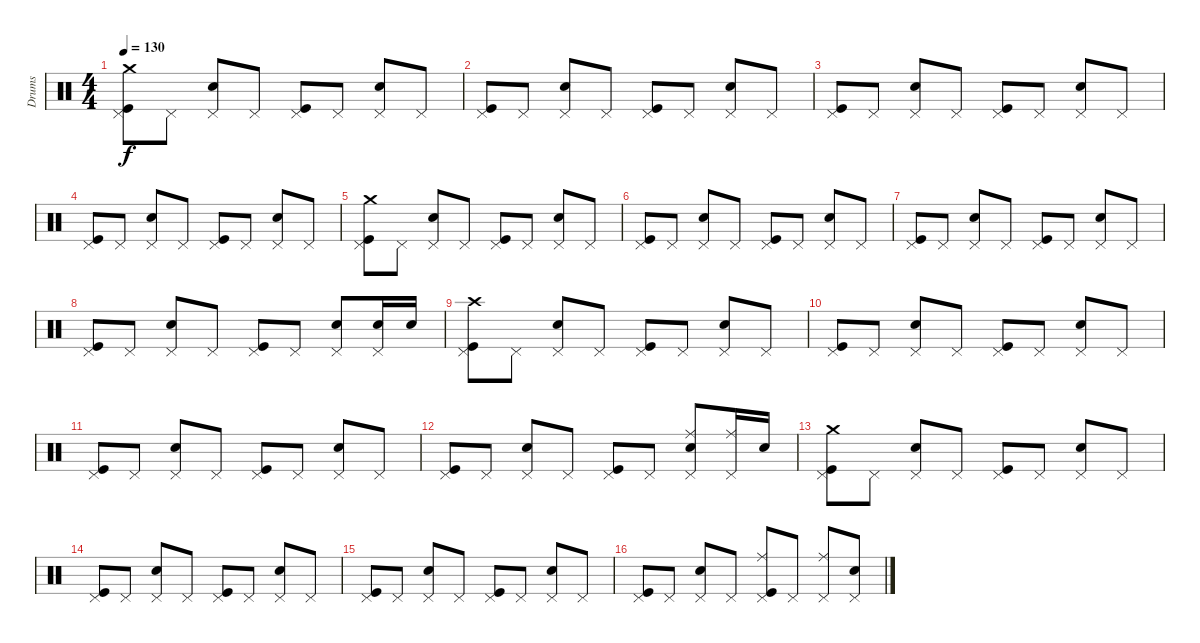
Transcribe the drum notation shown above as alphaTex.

\track ("Drums" "Drums") {instrument percussion}
\staff {score}
\articulation defaults
\ts (4 4)
\tempo 130
\clef neutral
\ks c
("Pedal Hi-Hat (hit)" "Kick (hit)" "Crash medium (hit)").8{dy f} "Pedal Hi-Hat (hit)".8 ("Pedal Hi-Hat (hit)" "Electric Snare (hit)").8 "Pedal Hi-Hat (hit)".8 ("Pedal Hi-Hat (hit)" "Kick (hit)").8 "Pedal Hi-Hat (hit)".8 ("Pedal Hi-Hat (hit)" "Electric Snare (hit)").8 "Pedal Hi-Hat (hit)".8 |
("Pedal Hi-Hat (hit)" "Kick (hit)").8 "Pedal Hi-Hat (hit)".8 ("Pedal Hi-Hat (hit)" "Electric Snare (hit)").8 "Pedal Hi-Hat (hit)".8 ("Pedal Hi-Hat (hit)" "Kick (hit)").8 "Pedal Hi-Hat (hit)".8 ("Pedal Hi-Hat (hit)" "Electric Snare (hit)").8 "Pedal Hi-Hat (hit)".8 |
("Pedal Hi-Hat (hit)" "Kick (hit)").8 "Pedal Hi-Hat (hit)".8 ("Pedal Hi-Hat (hit)" "Electric Snare (hit)").8 "Pedal Hi-Hat (hit)".8 ("Pedal Hi-Hat (hit)" "Kick (hit)").8 "Pedal Hi-Hat (hit)".8 ("Pedal Hi-Hat (hit)" "Electric Snare (hit)").8 "Pedal Hi-Hat (hit)".8 |
("Pedal Hi-Hat (hit)" "Kick (hit)").8 "Pedal Hi-Hat (hit)".8 ("Pedal Hi-Hat (hit)" "Electric Snare (hit)").8 "Pedal Hi-Hat (hit)".8 ("Pedal Hi-Hat (hit)" "Kick (hit)").8 "Pedal Hi-Hat (hit)".8 ("Pedal Hi-Hat (hit)" "Electric Snare (hit)").8 "Pedal Hi-Hat (hit)".8 |
("Pedal Hi-Hat (hit)" "Kick (hit)" "Crash medium (hit)").8 "Pedal Hi-Hat (hit)".8 ("Pedal Hi-Hat (hit)" "Electric Snare (hit)").8 "Pedal Hi-Hat (hit)".8 ("Pedal Hi-Hat (hit)" "Kick (hit)").8 "Pedal Hi-Hat (hit)".8 ("Pedal Hi-Hat (hit)" "Electric Snare (hit)").8 "Pedal Hi-Hat (hit)".8 |
("Pedal Hi-Hat (hit)" "Kick (hit)").8 "Pedal Hi-Hat (hit)".8 ("Pedal Hi-Hat (hit)" "Electric Snare (hit)").8 "Pedal Hi-Hat (hit)".8 ("Pedal Hi-Hat (hit)" "Kick (hit)").8 "Pedal Hi-Hat (hit)".8 ("Pedal Hi-Hat (hit)" "Electric Snare (hit)").8 "Pedal Hi-Hat (hit)".8 |
("Pedal Hi-Hat (hit)" "Kick (hit)").8 "Pedal Hi-Hat (hit)".8 ("Pedal Hi-Hat (hit)" "Electric Snare (hit)").8 "Pedal Hi-Hat (hit)".8 ("Pedal Hi-Hat (hit)" "Kick (hit)").8 "Pedal Hi-Hat (hit)".8 ("Pedal Hi-Hat (hit)" "Electric Snare (hit)").8 "Pedal Hi-Hat (hit)".8 |
("Pedal Hi-Hat (hit)" "Kick (hit)").8 "Pedal Hi-Hat (hit)".8 ("Pedal Hi-Hat (hit)" "Electric Snare (hit)").8 "Pedal Hi-Hat (hit)".8 ("Pedal Hi-Hat (hit)" "Kick (hit)").8 "Pedal Hi-Hat (hit)".8 ("Pedal Hi-Hat (hit)" "Electric Snare (hit)").8 ("Electric Snare (hit)" "Pedal Hi-Hat (hit)").16 "Electric Snare (hit)".16 |
("Crash high (hit)" "Pedal Hi-Hat (hit)" "Kick (hit)").8 "Pedal Hi-Hat (hit)".8 ("Pedal Hi-Hat (hit)" "Electric Snare (hit)").8 "Pedal Hi-Hat (hit)".8 ("Pedal Hi-Hat (hit)" "Kick (hit)").8 "Pedal Hi-Hat (hit)".8 ("Pedal Hi-Hat (hit)" "Electric Snare (hit)").8 "Pedal Hi-Hat (hit)".8 |
("Pedal Hi-Hat (hit)" "Kick (hit)").8 "Pedal Hi-Hat (hit)".8 ("Pedal Hi-Hat (hit)" "Electric Snare (hit)").8 "Pedal Hi-Hat (hit)".8 ("Pedal Hi-Hat (hit)" "Kick (hit)").8 "Pedal Hi-Hat (hit)".8 ("Pedal Hi-Hat (hit)" "Electric Snare (hit)").8 "Pedal Hi-Hat (hit)".8 |
("Pedal Hi-Hat (hit)" "Kick (hit)").8 "Pedal Hi-Hat (hit)".8 ("Pedal Hi-Hat (hit)" "Electric Snare (hit)").8 "Pedal Hi-Hat (hit)".8 ("Pedal Hi-Hat (hit)" "Kick (hit)").8 "Pedal Hi-Hat (hit)".8 ("Pedal Hi-Hat (hit)" "Electric Snare (hit)").8 "Pedal Hi-Hat (hit)".8 |
("Pedal Hi-Hat (hit)" "Kick (hit)").8 "Pedal Hi-Hat (hit)".8 ("Pedal Hi-Hat (hit)" "Electric Snare (hit)").8 "Pedal Hi-Hat (hit)".8 ("Pedal Hi-Hat (hit)" "Kick (hit)").8 "Pedal Hi-Hat (hit)".8 ("Ride (middle)" "Pedal Hi-Hat (hit)" "Electric Snare (hit)").8 ("Ride (middle)" "Pedal Hi-Hat (hit)").16 "Electric Snare (hit)".16 |
("Crash medium (hit)" "Pedal Hi-Hat (hit)" "Kick (hit)").8 "Pedal Hi-Hat (hit)".8 ("Pedal Hi-Hat (hit)" "Electric Snare (hit)").8 "Pedal Hi-Hat (hit)".8 ("Pedal Hi-Hat (hit)" "Kick (hit)").8 "Pedal Hi-Hat (hit)".8 ("Pedal Hi-Hat (hit)" "Electric Snare (hit)").8 "Pedal Hi-Hat (hit)".8 |
("Pedal Hi-Hat (hit)" "Kick (hit)").8 "Pedal Hi-Hat (hit)".8 ("Pedal Hi-Hat (hit)" "Electric Snare (hit)").8 "Pedal Hi-Hat (hit)".8 ("Pedal Hi-Hat (hit)" "Kick (hit)").8 "Pedal Hi-Hat (hit)".8 ("Pedal Hi-Hat (hit)" "Electric Snare (hit)").8 "Pedal Hi-Hat (hit)".8 |
("Pedal Hi-Hat (hit)" "Kick (hit)").8 "Pedal Hi-Hat (hit)".8 ("Pedal Hi-Hat (hit)" "Electric Snare (hit)").8 "Pedal Hi-Hat (hit)".8 ("Pedal Hi-Hat (hit)" "Kick (hit)").8 "Pedal Hi-Hat (hit)".8 ("Pedal Hi-Hat (hit)" "Electric Snare (hit)").8 "Pedal Hi-Hat (hit)".8 |
("Pedal Hi-Hat (hit)" "Kick (hit)").8 "Pedal Hi-Hat (hit)".8 ("Pedal Hi-Hat (hit)" "Electric Snare (hit)").8 "Pedal Hi-Hat (hit)".8 ("Ride (middle)" "Pedal Hi-Hat (hit)" "Kick (hit)").8 "Pedal Hi-Hat (hit)".8 ("Ride (middle)" "Pedal Hi-Hat (hit)").8 ("Electric Snare (hit)" "Pedal Hi-Hat (hit)").8
